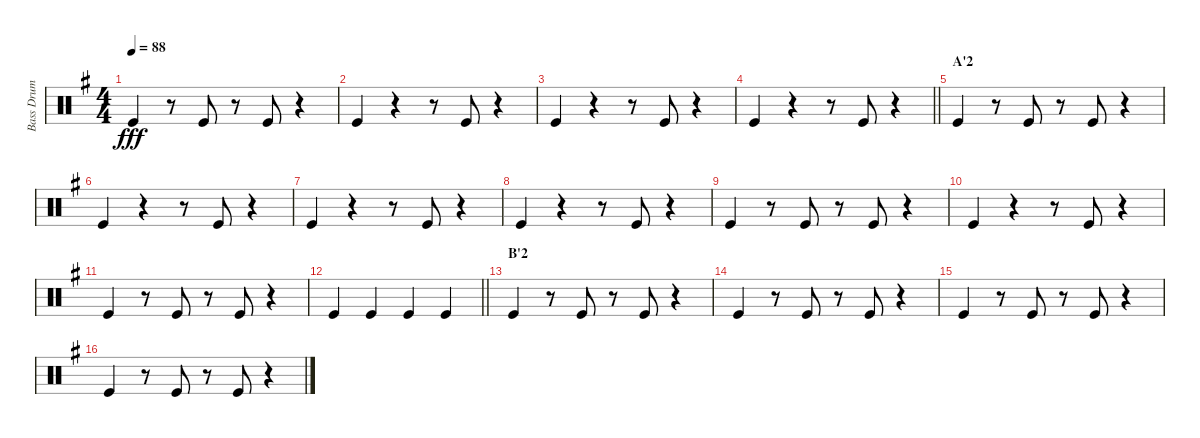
\track ("Bass Drum" "Bass Drum") {instrument percussion}
\staff {score}
\articulation defaults
\ts (4 4)
\tempo 88
\clef neutral
\ks g "Kick (hit)".4{dy fff}
r.8 "Kick (hit)".8 r.8 "Kick (hit)".8 r.4 |
"Kick (hit)".4 r.4 r.8 "Kick (hit)".8 r.4 |
"Kick (hit)".4 r.4 r.8 "Kick (hit)".8 r.4 |
\barLineRight lightlight "Kick (hit)".4
r.4 r.8 "Kick (hit)".8 r.4 |
\section ("" "A'2")
"Kick (hit)".4 r.8 "Kick (hit)".8 r.8 "Kick (hit)".8 r.4 |
"Kick (hit)".4 r.4 r.8 "Kick (hit)".8 r.4 |
"Kick (hit)".4 r.4 r.8 "Kick (hit)".8 r.4 |
"Kick (hit)".4 r.4 r.8 "Kick (hit)".8 r.4 |
"Kick (hit)".4 r.8 "Kick (hit)".8 r.8 "Kick (hit)".8 r.4 |
"Kick (hit)".4 r.4 r.8 "Kick (hit)".8 r.4 |
"Kick (hit)".4 r.8 "Kick (hit)".8 r.8 "Kick (hit)".8 r.4 |
\barLineRight lightlight "Kick (hit)".4 "Kick (hit)".4 "Kick (hit)".4 "Kick (hit)".4
|
\section ("" "B'2")
"Kick (hit)".4 r.8 "Kick (hit)".8 r.8 "Kick (hit)".8 r.4 |
"Kick (hit)".4 r.8 "Kick (hit)".8 r.8 "Kick (hit)".8 r.4 |
"Kick (hit)".4 r.8 "Kick (hit)".8 r.8 "Kick (hit)".8 r.4 |
"Kick (hit)".4 r.8 "Kick (hit)".8 r.8 "Kick (hit)".8 r.4
